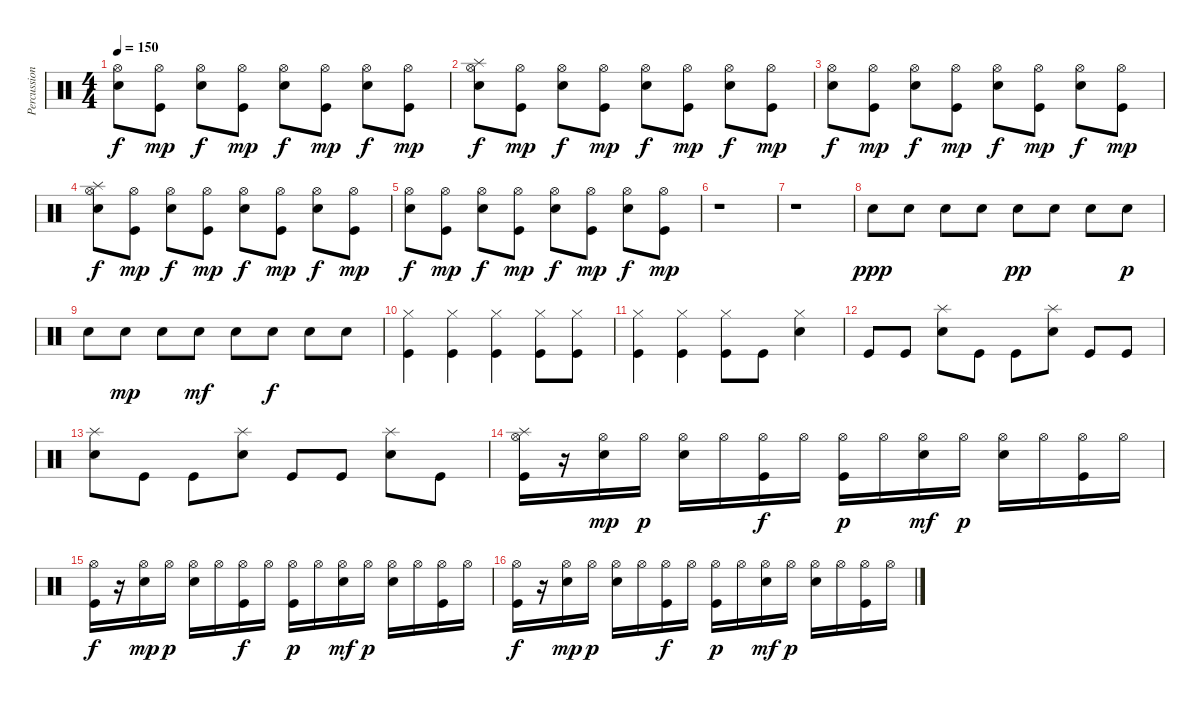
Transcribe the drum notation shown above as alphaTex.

\track ("Percussions" "Percussion") {instrument percussion}
\staff {score}
\articulation defaults
\ts (4 4)
\tempo 150
\clef neutral
\ks c
("Hi-Hat (open)" "Electric Snare (hit)").8{dy f} ("Hi-Hat (open)" "Kick (hit)").8{dy mp} ("Hi-Hat (open)" "Electric Snare (hit)").8{dy f} ("Hi-Hat (open)" "Kick (hit)").8{dy mp} ("Hi-Hat (open)" "Electric Snare (hit)").8{dy f} ("Hi-Hat (open)" "Kick (hit)").8{dy mp} ("Hi-Hat (open)" "Electric Snare (hit)").8{dy f} ("Hi-Hat (open)" "Kick (hit)").8{dy mp} |
("Splash (hit)" "Hi-Hat (open)" "Electric Snare (hit)").8{dy f} ("Hi-Hat (open)" "Kick (hit)").8{dy mp} ("Hi-Hat (open)" "Electric Snare (hit)").8{dy f} ("Hi-Hat (open)" "Kick (hit)").8{dy mp} ("Hi-Hat (open)" "Electric Snare (hit)").8{dy f} ("Hi-Hat (open)" "Kick (hit)").8{dy mp} ("Hi-Hat (open)" "Electric Snare (hit)").8{dy f} ("Hi-Hat (open)" "Kick (hit)").8{dy mp} |
("Hi-Hat (open)" "Electric Snare (hit)").8{dy f} ("Hi-Hat (open)" "Kick (hit)").8{dy mp} ("Hi-Hat (open)" "Electric Snare (hit)").8{dy f} ("Hi-Hat (open)" "Kick (hit)").8{dy mp} ("Hi-Hat (open)" "Electric Snare (hit)").8{dy f} ("Hi-Hat (open)" "Kick (hit)").8{dy mp} ("Hi-Hat (open)" "Electric Snare (hit)").8{dy f} ("Hi-Hat (open)" "Kick (hit)").8{dy mp} |
("Splash (hit)" "Hi-Hat (open)" "Electric Snare (hit)").8{dy f} ("Hi-Hat (open)" "Kick (hit)").8{dy mp} ("Hi-Hat (open)" "Electric Snare (hit)").8{dy f} ("Hi-Hat (open)" "Kick (hit)").8{dy mp} ("Hi-Hat (open)" "Electric Snare (hit)").8{dy f} ("Hi-Hat (open)" "Kick (hit)").8{dy mp} ("Hi-Hat (open)" "Electric Snare (hit)").8{dy f} ("Hi-Hat (open)" "Kick (hit)").8{dy mp} |
("Hi-Hat (open)" "Electric Snare (hit)").8{dy f} ("Hi-Hat (open)" "Kick (hit)").8{dy mp} ("Hi-Hat (open)" "Electric Snare (hit)").8{dy f} ("Hi-Hat (open)" "Kick (hit)").8{dy mp} ("Hi-Hat (open)" "Electric Snare (hit)").8{dy f} ("Hi-Hat (open)" "Kick (hit)").8{dy mp} ("Hi-Hat (open)" "Electric Snare (hit)").8{dy f} ("Hi-Hat (open)" "Kick (hit)").8{dy mp} |
r.1 |
r.1 |
"Electric Snare (hit)".8{dy ppp} "Electric Snare (hit)".8 "Electric Snare (hit)".8 "Electric Snare (hit)".8 "Electric Snare (hit)".8{dy pp} "Electric Snare (hit)".8 "Electric Snare (hit)".8 "Electric Snare (hit)".8{dy p} |
"Electric Snare (hit)".8 "Electric Snare (hit)".8{dy mp} "Electric Snare (hit)".8 "Electric Snare (hit)".8{dy mf} "Electric Snare (hit)".8 "Electric Snare (hit)".8{dy f} "Electric Snare (hit)".8 "Electric Snare (hit)".8 |
("Hi-Hat (closed)" "Kick (hit)").4 ("Hi-Hat (closed)" "Kick (hit)").4 ("Hi-Hat (closed)" "Kick (hit)").4 ("Hi-Hat (closed)" "Kick (hit)").8 ("Hi-Hat (closed)" "Kick (hit)").8 |
("Hi-Hat (closed)" "Kick (hit)").4 ("Hi-Hat (closed)" "Kick (hit)").4 ("Hi-Hat (closed)" "Kick (hit)").8 "Kick (hit)".8 ("Hi-Hat (closed)" "Electric Snare (hit)").4 |
"Kick (hit)".8 "Kick (hit)".8 ("Splash (hit)" "Electric Snare (hit)").8 "Kick (hit)".8 "Kick (hit)".8 ("Splash (hit)" "Electric Snare (hit)").8 "Kick (hit)".8 "Kick (hit)".8 |
("Splash (hit)" "Electric Snare (hit)").8 "Kick (hit)".8 "Kick (hit)".8 ("Splash (hit)" "Electric Snare (hit)").8 "Kick (hit)".8 "Kick (hit)".8 ("Splash (hit)" "Electric Snare (hit)").8 "Kick (hit)".8 |
("Splash (hit)" "Hi-Hat (open)" "Kick (hit)").16 r.16 ("Hi-Hat (open)" "Snare (hit)").16{dy mp} "Hi-Hat (open)".16{dy p} ("Hi-Hat (open)" "Electric Snare (hit)").16 "Hi-Hat (open)".16 ("Hi-Hat (open)" "Kick (hit)").16{dy f} "Hi-Hat (open)".16 ("Hi-Hat (open)" "Kick (hit)").16{dy p} "Hi-Hat (open)".16 ("Hi-Hat (open)" "Electric Snare (hit)").16{dy mf} "Hi-Hat (open)".16{dy p} ("Hi-Hat (open)" "Snare (hit)").16 "Hi-Hat (open)".16 ("Hi-Hat (open)" "Kick (hit)").16 "Hi-Hat (open)".16 |
("Hi-Hat (open)" "Kick (hit)").16{dy f} r.16 ("Hi-Hat (open)" "Snare (hit)").16{dy mp} "Hi-Hat (open)".16{dy p} ("Hi-Hat (open)" "Electric Snare (hit)").16 "Hi-Hat (open)".16 ("Hi-Hat (open)" "Kick (hit)").16{dy f} "Hi-Hat (open)".16 ("Hi-Hat (open)" "Kick (hit)").16{dy p} "Hi-Hat (open)".16 ("Hi-Hat (open)" "Electric Snare (hit)").16{dy mf} "Hi-Hat (open)".16{dy p} ("Hi-Hat (open)" "Snare (hit)").16 "Hi-Hat (open)".16 ("Hi-Hat (open)" "Kick (hit)").16 "Hi-Hat (open)".16 |
("Hi-Hat (open)" "Kick (hit)").16{dy f} r.16 ("Hi-Hat (open)" "Snare (hit)").16{dy mp} "Hi-Hat (open)".16{dy p} ("Hi-Hat (open)" "Electric Snare (hit)").16 "Hi-Hat (open)".16 ("Hi-Hat (open)" "Kick (hit)").16{dy f} "Hi-Hat (open)".16 ("Hi-Hat (open)" "Kick (hit)").16{dy p} "Hi-Hat (open)".16 ("Hi-Hat (open)" "Electric Snare (hit)").16{dy mf} "Hi-Hat (open)".16{dy p} ("Hi-Hat (open)" "Snare (hit)").16 "Hi-Hat (open)".16 ("Hi-Hat (open)" "Kick (hit)").16 "Hi-Hat (open)".16
